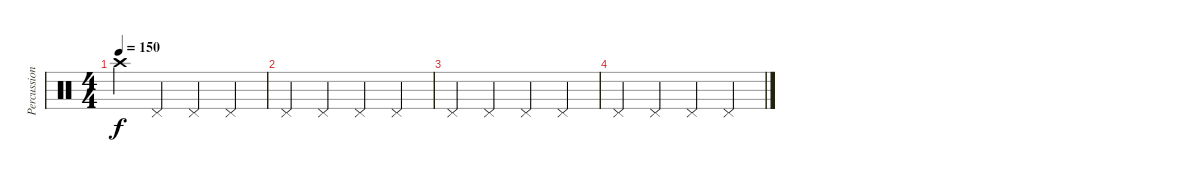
\track ("Percussion" "Percussion") {instrument percussion}
\staff {score}
\articulation defaults
\ts (4 4)
\tempo 150
\clef neutral
\ks c "Crash high (hit)".4{dy f} "Pedal Hi-Hat (hit)".4 "Pedal Hi-Hat (hit)".4 "Pedal Hi-Hat (hit)".4
|
"Pedal Hi-Hat (hit)".4 "Pedal Hi-Hat (hit)".4 "Pedal Hi-Hat (hit)".4 "Pedal Hi-Hat (hit)".4 |
"Pedal Hi-Hat (hit)".4 "Pedal Hi-Hat (hit)".4 "Pedal Hi-Hat (hit)".4 "Pedal Hi-Hat (hit)".4 |
"Pedal Hi-Hat (hit)".4 "Pedal Hi-Hat (hit)".4 "Pedal Hi-Hat (hit)".4 "Pedal Hi-Hat (hit)".4
